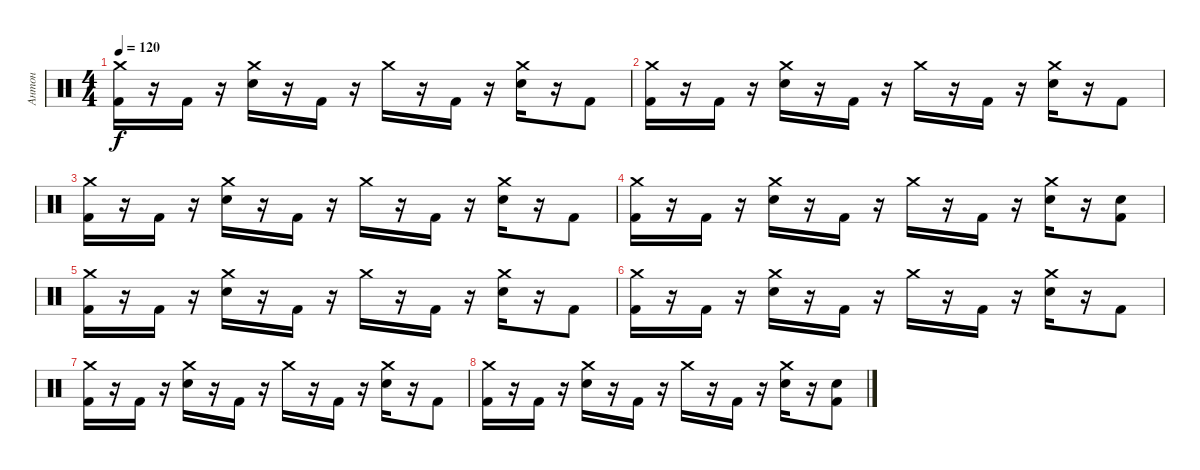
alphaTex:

\track ("Антон" "Антон") {instrument percussion}
\staff {score}
\articulation defaults
\ts (4 4)
\tempo 120
\clef neutral
\ks c
("Crash medium (hit)" "Kick (hit) 2").16{dy f} r.16 "Kick (hit) 2".16 r.16 ("Crash medium (hit)" "Electric Snare (hit)").16 r.16 "Kick (hit) 2".16 r.16 "Crash medium (hit)".16 r.16 "Kick (hit) 2".16 r.16 ("Crash medium (hit)" "Electric Snare (hit)").16 r.16 "Kick (hit) 2".8 |
("Crash medium (hit)" "Kick (hit) 2").16 r.16 "Kick (hit) 2".16 r.16 ("Crash medium (hit)" "Electric Snare (hit)").16 r.16 "Kick (hit) 2".16 r.16 "Crash medium (hit)".16 r.16 "Kick (hit) 2".16 r.16 ("Crash medium (hit)" "Electric Snare (hit)").16 r.16 "Kick (hit) 2".8 |
("Crash medium (hit)" "Kick (hit) 2").16 r.16 "Kick (hit) 2".16 r.16 ("Crash medium (hit)" "Electric Snare (hit)").16 r.16 "Kick (hit) 2".16 r.16 "Crash medium (hit)".16 r.16 "Kick (hit) 2".16 r.16 ("Crash medium (hit)" "Electric Snare (hit)").16 r.16 "Kick (hit) 2".8 |
("Crash medium (hit)" "Kick (hit) 2").16 r.16 "Kick (hit) 2".16 r.16 ("Crash medium (hit)" "Electric Snare (hit)").16 r.16 "Kick (hit) 2".16 r.16 "Crash medium (hit)".16 r.16 "Kick (hit) 2".16 r.16 ("Crash medium (hit)" "Electric Snare (hit)").16 r.16 ("Electric Snare (hit)" "Kick (hit) 2").8 |
("Crash medium (hit)" "Kick (hit) 2").16 r.16 "Kick (hit) 2".16 r.16 ("Crash medium (hit)" "Electric Snare (hit)").16 r.16 "Kick (hit) 2".16 r.16 "Crash medium (hit)".16 r.16 "Kick (hit) 2".16 r.16 ("Crash medium (hit)" "Electric Snare (hit)").16 r.16 "Kick (hit) 2".8 |
("Crash medium (hit)" "Kick (hit) 2").16 r.16 "Kick (hit) 2".16 r.16 ("Crash medium (hit)" "Electric Snare (hit)").16 r.16 "Kick (hit) 2".16 r.16 "Crash medium (hit)".16 r.16 "Kick (hit) 2".16 r.16 ("Crash medium (hit)" "Electric Snare (hit)").16 r.16 "Kick (hit) 2".8 |
("Crash medium (hit)" "Kick (hit) 2").16 r.16 "Kick (hit) 2".16 r.16 ("Crash medium (hit)" "Electric Snare (hit)").16 r.16 "Kick (hit) 2".16 r.16 "Crash medium (hit)".16 r.16 "Kick (hit) 2".16 r.16 ("Crash medium (hit)" "Electric Snare (hit)").16 r.16 "Kick (hit) 2".8 |
("Crash medium (hit)" "Kick (hit) 2").16 r.16 "Kick (hit) 2".16 r.16 ("Crash medium (hit)" "Electric Snare (hit)").16 r.16 "Kick (hit) 2".16 r.16 "Crash medium (hit)".16 r.16 "Kick (hit) 2".16 r.16 ("Crash medium (hit)" "Electric Snare (hit)").16 r.16 ("Electric Snare (hit)" "Kick (hit) 2").8
